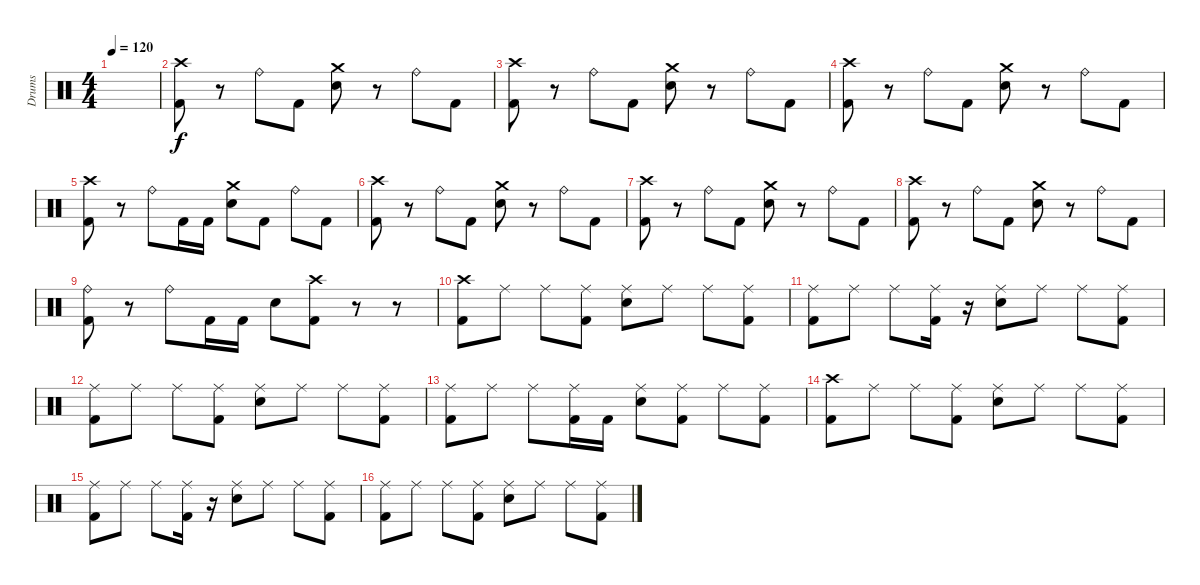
\track ("Drums" "Drums") {instrument percussion}
\staff {score}
\articulation defaults
\ts (4 4)
\tempo 120
\clef neutral
\ks c
|
("Crash high (hit)" "Kick (hit) 2").8 r.8 "Ride (bell)".8 "Kick (hit) 2".8 ("Crash medium (hit)" "Electric Snare (hit)").8 r.8 "Ride (bell)".8 "Kick (hit) 2".8 |
("Crash high (hit)" "Kick (hit) 2").8 r.8 "Ride (bell)".8 "Kick (hit) 2".8 ("Crash medium (hit)" "Electric Snare (hit)").8 r.8 "Ride (bell)".8 "Kick (hit) 2".8 |
("Crash high (hit)" "Kick (hit) 2").8 r.8 "Ride (bell)".8 "Kick (hit) 2".8 ("Crash medium (hit)" "Electric Snare (hit)").8 r.8 "Ride (bell)".8 "Kick (hit) 2".8 |
("Crash high (hit)" "Kick (hit) 2").8 r.8 "Ride (bell)".8 "Kick (hit) 2".16 "Kick (hit) 2".16 ("Crash medium (hit)" "Electric Snare (hit)").8 "Kick (hit) 2".8 "Ride (bell)".8 "Kick (hit) 2".8 |
("Crash high (hit)" "Kick (hit) 2").8 r.8 "Ride (bell)".8 "Kick (hit) 2".8 ("Crash medium (hit)" "Electric Snare (hit)").8 r.8 "Ride (bell)".8 "Kick (hit) 2".8 |
("Crash high (hit)" "Kick (hit) 2").8 r.8 "Ride (bell)".8 "Kick (hit) 2".8 ("Crash medium (hit)" "Electric Snare (hit)").8 r.8 "Ride (bell)".8 "Kick (hit) 2".8 |
("Crash high (hit)" "Kick (hit) 2").8 r.8 "Ride (bell)".8 "Kick (hit) 2".8 ("Crash medium (hit)" "Electric Snare (hit)").8 r.8 "Ride (bell)".8 "Kick (hit) 2".8 |
("Ride (bell)" "Kick (hit) 2").8 r.8 "Ride (bell)".8 "Kick (hit) 2".16 "Kick (hit) 2".16 "Electric Snare (hit)".8 ("Crash high (hit)" "Kick (hit) 2").8 r.8 r.8 |
("Crash high (hit)" "Kick (hit) 2").8 "Ride (middle)".8 "Ride (middle)".8 ("Ride (middle)" "Kick (hit) 2").8 ("Ride (middle)" "Electric Snare (hit)").8 "Ride (middle)".8 "Ride (middle)".8 ("Ride (middle)" "Kick (hit) 2").8 |
("Ride (middle)" "Kick (hit) 2").8 "Ride (middle)".8 "Ride (middle)".8 ("Ride (middle)" "Kick (hit) 2").16 r.16 ("Ride (middle)" "Electric Snare (hit)").8 "Ride (middle)".8 "Ride (middle)".8 ("Ride (middle)" "Kick (hit) 2").8 |
("Ride (middle)" "Kick (hit) 2").8 "Ride (middle)".8 "Ride (middle)".8 ("Ride (middle)" "Kick (hit) 2").8 ("Ride (middle)" "Electric Snare (hit)").8 "Ride (middle)".8 "Ride (middle)".8 ("Ride (middle)" "Kick (hit) 2").8 |
("Ride (middle)" "Kick (hit) 2").8 "Ride (middle)".8 "Ride (middle)".8 ("Ride (middle)" "Kick (hit) 2").16 "Kick (hit) 2".16 ("Ride (middle)" "Electric Snare (hit)").8 ("Ride (middle)" "Kick (hit) 2").8 "Ride (middle)".8 ("Ride (middle)" "Kick (hit) 2").8 |
("Crash high (hit)" "Kick (hit) 2").8 "Ride (middle)".8 "Ride (middle)".8 ("Ride (middle)" "Kick (hit) 2").8 ("Ride (middle)" "Electric Snare (hit)").8 "Ride (middle)".8 "Ride (middle)".8 ("Ride (middle)" "Kick (hit) 2").8 |
("Ride (middle)" "Kick (hit) 2").8 "Ride (middle)".8 "Ride (middle)".8 ("Ride (middle)" "Kick (hit) 2").16 r.16 ("Ride (middle)" "Electric Snare (hit)").8 "Ride (middle)".8 "Ride (middle)".8 ("Ride (middle)" "Kick (hit) 2").8 |
("Ride (middle)" "Kick (hit) 2").8 "Ride (middle)".8 "Ride (middle)".8 ("Ride (middle)" "Kick (hit) 2").8 ("Ride (middle)" "Electric Snare (hit)").8 "Ride (middle)".8 "Ride (middle)".8 ("Ride (middle)" "Kick (hit) 2").8
